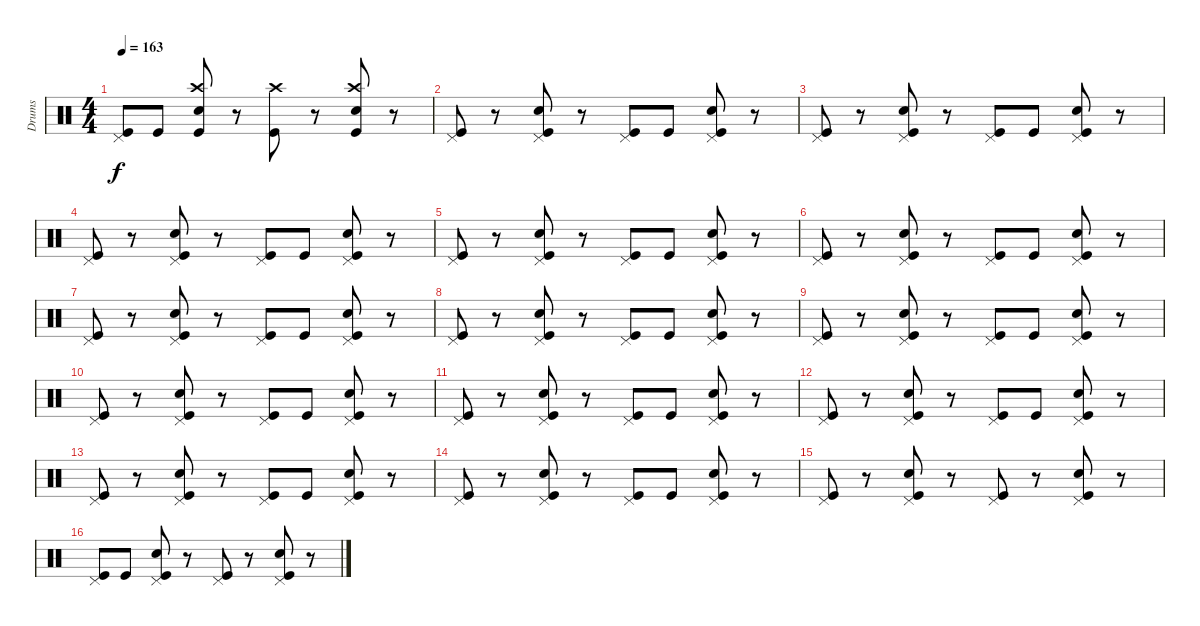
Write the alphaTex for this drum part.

\track ("Drums" "Drums") {instrument percussion}
\staff {score}
\articulation defaults
\ts (4 4)
\tempo 163
\clef neutral
\ks c
("Pedal Hi-Hat (hit)" "Kick (hit)").8{dy f} "Kick (hit)".8 ("Crash high (hit)" "Snare (hit) 2" "Kick (hit)").8 r.8 ("Crash high (hit)" "Kick (hit)").8 r.8 ("Crash high (hit)" "Snare (hit) 2" "Kick (hit)").8 r.8 |
("Pedal Hi-Hat (hit)" "Kick (hit)").8 r.8 ("Pedal Hi-Hat (hit)" "Snare (hit) 2" "Kick (hit)").8 r.8 ("Pedal Hi-Hat (hit)" "Kick (hit)").8 "Kick (hit)".8 ("Pedal Hi-Hat (hit)" "Snare (hit) 2" "Kick (hit)").8 r.8 |
("Pedal Hi-Hat (hit)" "Kick (hit)").8 r.8 ("Pedal Hi-Hat (hit)" "Snare (hit) 2" "Kick (hit)").8 r.8 ("Pedal Hi-Hat (hit)" "Kick (hit)").8 "Kick (hit)".8 ("Pedal Hi-Hat (hit)" "Snare (hit) 2" "Kick (hit)").8 r.8 |
("Pedal Hi-Hat (hit)" "Kick (hit)").8 r.8 ("Pedal Hi-Hat (hit)" "Snare (hit) 2" "Kick (hit)").8 r.8 ("Pedal Hi-Hat (hit)" "Kick (hit)").8 "Kick (hit)".8 ("Pedal Hi-Hat (hit)" "Snare (hit) 2" "Kick (hit)").8 r.8 |
("Pedal Hi-Hat (hit)" "Kick (hit)").8 r.8 ("Pedal Hi-Hat (hit)" "Snare (hit) 2" "Kick (hit)").8 r.8 ("Pedal Hi-Hat (hit)" "Kick (hit)").8 "Kick (hit)".8 ("Pedal Hi-Hat (hit)" "Snare (hit) 2" "Kick (hit)").8 r.8 |
("Pedal Hi-Hat (hit)" "Kick (hit)").8 r.8 ("Pedal Hi-Hat (hit)" "Snare (hit) 2" "Kick (hit)").8 r.8 ("Pedal Hi-Hat (hit)" "Kick (hit)").8 "Kick (hit)".8 ("Pedal Hi-Hat (hit)" "Snare (hit) 2" "Kick (hit)").8 r.8 |
("Pedal Hi-Hat (hit)" "Kick (hit)").8 r.8 ("Pedal Hi-Hat (hit)" "Snare (hit) 2" "Kick (hit)").8 r.8 ("Pedal Hi-Hat (hit)" "Kick (hit)").8 "Kick (hit)".8 ("Pedal Hi-Hat (hit)" "Snare (hit) 2" "Kick (hit)").8 r.8 |
("Pedal Hi-Hat (hit)" "Kick (hit)").8 r.8 ("Pedal Hi-Hat (hit)" "Snare (hit) 2" "Kick (hit)").8 r.8 ("Pedal Hi-Hat (hit)" "Kick (hit)").8 "Kick (hit)".8 ("Pedal Hi-Hat (hit)" "Snare (hit) 2" "Kick (hit)").8 r.8 |
("Pedal Hi-Hat (hit)" "Kick (hit)").8 r.8 ("Pedal Hi-Hat (hit)" "Snare (hit) 2" "Kick (hit)").8 r.8 ("Pedal Hi-Hat (hit)" "Kick (hit)").8 "Kick (hit)".8 ("Pedal Hi-Hat (hit)" "Snare (hit) 2" "Kick (hit)").8 r.8 |
("Pedal Hi-Hat (hit)" "Kick (hit)").8 r.8 ("Pedal Hi-Hat (hit)" "Snare (hit) 2" "Kick (hit)").8 r.8 ("Pedal Hi-Hat (hit)" "Kick (hit)").8 "Kick (hit)".8 ("Pedal Hi-Hat (hit)" "Snare (hit) 2" "Kick (hit)").8 r.8 |
("Pedal Hi-Hat (hit)" "Kick (hit)").8 r.8 ("Pedal Hi-Hat (hit)" "Snare (hit) 2" "Kick (hit)").8 r.8 ("Pedal Hi-Hat (hit)" "Kick (hit)").8 "Kick (hit)".8 ("Pedal Hi-Hat (hit)" "Snare (hit) 2" "Kick (hit)").8 r.8 |
("Pedal Hi-Hat (hit)" "Kick (hit)").8 r.8 ("Pedal Hi-Hat (hit)" "Snare (hit) 2" "Kick (hit)").8 r.8 ("Pedal Hi-Hat (hit)" "Kick (hit)").8 "Kick (hit)".8 ("Pedal Hi-Hat (hit)" "Snare (hit) 2" "Kick (hit)").8 r.8 |
("Pedal Hi-Hat (hit)" "Kick (hit)").8 r.8 ("Pedal Hi-Hat (hit)" "Snare (hit) 2" "Kick (hit)").8 r.8 ("Pedal Hi-Hat (hit)" "Kick (hit)").8 "Kick (hit)".8 ("Pedal Hi-Hat (hit)" "Snare (hit) 2" "Kick (hit)").8 r.8 |
("Pedal Hi-Hat (hit)" "Kick (hit)").8 r.8 ("Pedal Hi-Hat (hit)" "Snare (hit) 2" "Kick (hit)").8 r.8 ("Pedal Hi-Hat (hit)" "Kick (hit)").8 "Kick (hit)".8 ("Pedal Hi-Hat (hit)" "Snare (hit) 2" "Kick (hit)").8 r.8 |
("Pedal Hi-Hat (hit)" "Kick (hit)").8 r.8 ("Pedal Hi-Hat (hit)" "Snare (hit) 2" "Kick (hit)").8 r.8 ("Pedal Hi-Hat (hit)" "Kick (hit)").8 r.8 ("Pedal Hi-Hat (hit)" "Snare (hit) 2" "Kick (hit)").8 r.8 |
("Pedal Hi-Hat (hit)" "Kick (hit)").8 "Kick (hit)".8 ("Pedal Hi-Hat (hit)" "Snare (hit) 2" "Kick (hit)").8 r.8 ("Pedal Hi-Hat (hit)" "Kick (hit)").8 r.8 ("Pedal Hi-Hat (hit)" "Snare (hit) 2" "Kick (hit)").8 r.8
